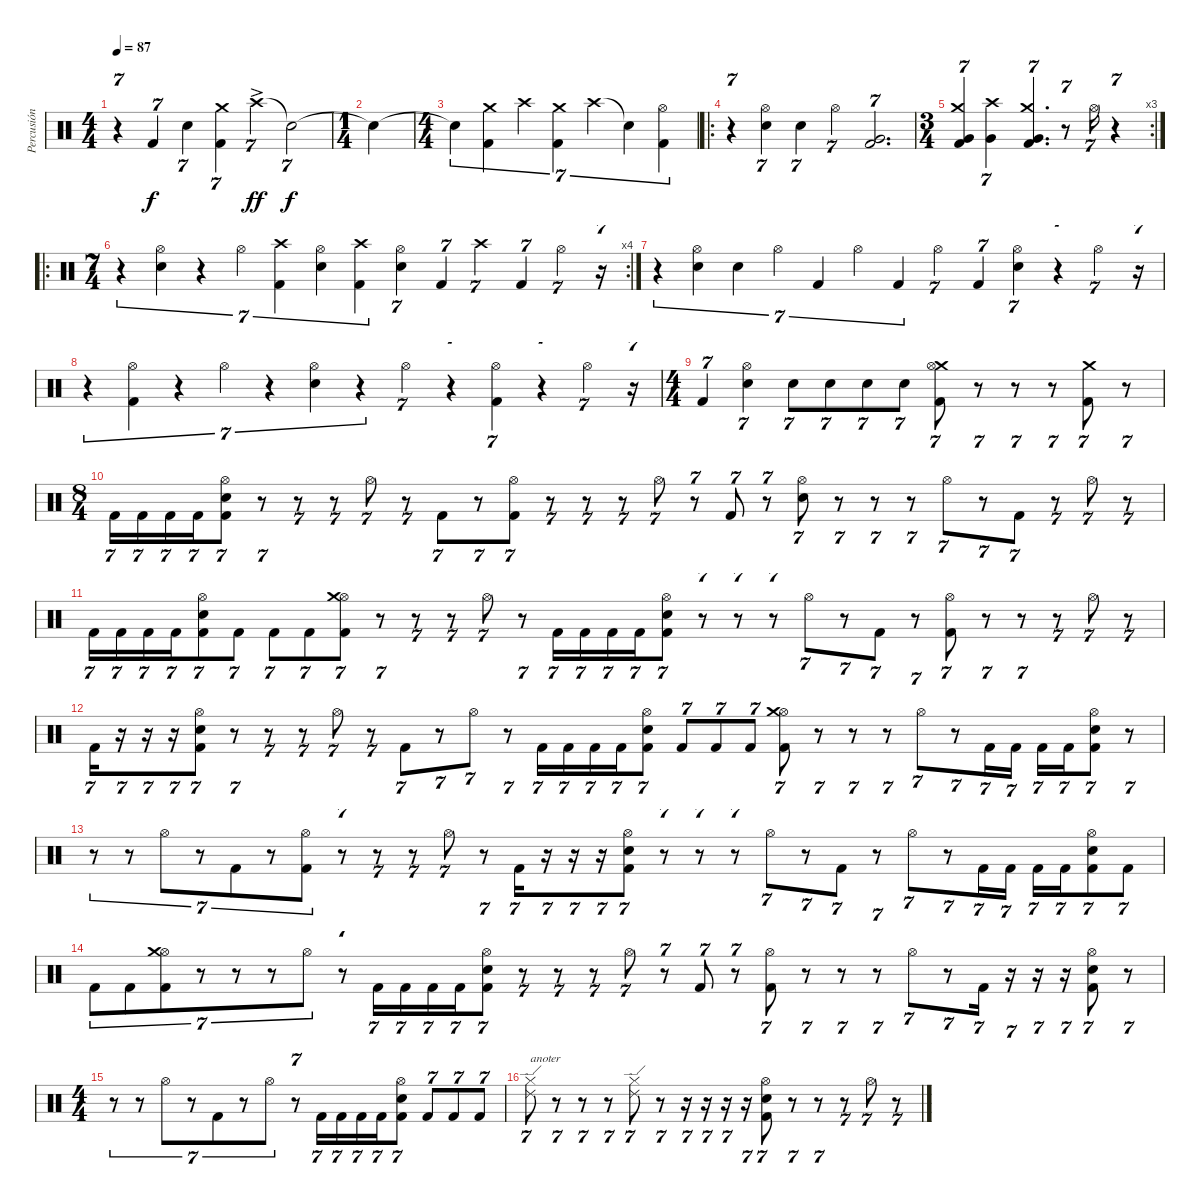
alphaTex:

\track ("Percusión" "Percusión") {instrument percussion}
\staff {score}
\articulation defaults
\ts (4 4)
\tempo 87
\clef neutral
\ks c
r.4{tu (7 4) dy fff} "Kick (hit) 2".4{tu (7 4) dy f} "Electric Snare (hit)".4{tu (7 4)} ("Crash medium (hit)" "Kick (hit) 2").4{tu (7 4)} "Crash high (hit)"{ac}.4{tu (7 4) dy ff} "Snare (hit)"{t}.2{tu (7 4) dy f} |
\ts (1 4)
"Snare (hit)"{t}.4 |
\ts (4 4)
"Snare (hit)"{t}.4{tu (7 4)} ("Crash medium (hit)" "Kick (hit) 2").4{tu (7 4)} "Crash high (hit)".4{tu (7 4)} ("Crash medium (hit)" "Kick (hit) 2").4{tu (7 4)} "Crash high (hit)".4{tu (7 4)} "Snare (hit)"{t}.4{tu (7 4)} ("Hi-Hat (open)" "Kick (hit) 2").4{tu (7 4)} |
\ro
r.4{tu (7 4)} ("Hi-Hat (open)" "Electric Snare (hit)").4{tu (7 4)} "Electric Snare (hit)".4{tu (7 4)} "Hi-Hat (open)".4{tu (7 4)} ("Very Low Tom (hit)" "Kick (hit) 2").2{d tu (7 4)} |
\rc 3
\ts (3 4)
("Crash medium (hit)" "Very Low Tom (hit)" "Kick (hit) 2").4{tu (7 4)} ("Crash high (hit)" "Very Low Tom (hit)").4{tu (7 4)} ("Crash medium (hit)" "Very Low Tom (hit)" "Kick (hit) 2").4{d tu (7 4)} r.8{tu (7 4)} "Hi-Hat (open)".16{tu (7 4)} r.4{tu (7 4)} |
\ro
\rc 4
\ts (7 4)
r.4{tu (7 4)} ("Hi-Hat (open)" "Electric Snare (hit)").4{tu (7 4)} r.4{tu (7 4)} "Hi-Hat (open)".4{tu (7 4)} ("Crash high (hit)" "Kick (hit) 2").4{tu (7 4)} ("Hi-Hat (open)" "Electric Snare (hit)").4{tu (7 4)} ("Crash high (hit)" "Kick (hit) 2").4{tu (7 4)} ("Hi-Hat (open)" "Electric Snare (hit)").4{tu (7 4)} "Kick (hit) 2".4{tu (7 4)} "Crash high (hit)".4{tu (7 4)} "Kick (hit) 2".4{tu (7 4)} "Hi-Hat (open)".4{tu (7 4)} r.16{tu (7 4)} |
r.4{tu (7 4)} ("Hi-Hat (open)" "Electric Snare (hit)").4{tu (7 4)} "Electric Snare (hit)".4{tu (7 4)} "Hi-Hat (open)".4{tu (7 4)} "Kick (hit) 2".4{tu (7 4)} "Hi-Hat (open)".4{tu (7 4)} "Kick (hit) 2".4{tu (7 4)} "Hi-Hat (open)".4{tu (7 4)} "Kick (hit) 2".4{tu (7 4)} ("Hi-Hat (open)" "Electric Snare (hit)").4{tu (7 4)} r.4{tu (7 4)} "Hi-Hat (open)".4{tu (7 4)} r.16{tu (7 4)} |
r.4{tu (7 4)} ("Hi-Hat (open)" "Kick (hit) 2").4{tu (7 4)} r.4{tu (7 4)} "Hi-Hat (open)".4{tu (7 4)} r.4{tu (7 4)} ("Hi-Hat (open)" "Electric Snare (hit)").4{tu (7 4)} r.4{tu (7 4)} "Hi-Hat (open)".4{tu (7 4)} r.4{tu (7 4)} ("Hi-Hat (open)" "Kick (hit) 2").4{tu (7 4)} r.4{tu (7 4)} "Hi-Hat (open)".4{tu (7 4)} r.16{tu (7 4)} |
\ts (4 4)
"Kick (hit) 2".4{tu (7 4)} ("Hi-Hat (open)" "Electric Snare (hit)").4{tu (7 4)} "Electric Snare (hit)".8{tu (7 4)} "Electric Snare (hit)".8{tu (7 4)} "Electric Snare (hit)".8{tu (7 4)} "Electric Snare (hit)".8{tu (7 4)} ("Crash medium (hit)" "Hi-Hat (open)" "Kick (hit) 2").8{tu (7 4)} r.8{tu (7 4)} r.8{tu (7 4)} r.8{tu (7 4)} ("Crash medium (hit)" "Kick (hit) 2").8{tu (7 4)} r.8{tu (7 4)} |
\ts (8 4)
"Kick (hit) 2".16{tu (7 4)} "Kick (hit) 2".16{tu (7 4)} "Kick (hit) 2".16{tu (7 4)} "Kick (hit) 2".16{tu (7 4)} ("Hi-Hat (open)" "Electric Snare (hit)" "Kick (hit) 2").8{tu (7 4)} r.8{tu (7 4)} r.8{tu (7 4)} r.8{tu (7 4)} "Hi-Hat (open)".8{tu (7 4)} r.8{tu (7 4)} "Kick (hit) 2".8{tu (7 4)} r.8{tu (7 4)} ("Hi-Hat (open)" "Kick (hit) 2").8{tu (7 4)} r.8{tu (7 4)} r.8{tu (7 4)} r.8{tu (7 4)} "Hi-Hat (open)".8{tu (7 4)} r.8{tu (7 4)} "Kick (hit) 2".8{tu (7 4)} r.8{tu (7 4)} ("Hi-Hat (open)" "Electric Snare (hit)").8{tu (7 4)} r.8{tu (7 4)} r.8{tu (7 4)} r.8{tu (7 4)} "Hi-Hat (open)".8{tu (7 4)} r.8{tu (7 4)} "Kick (hit) 2".8{tu (7 4)} r.8{tu (7 4)} "Hi-Hat (open)".8{tu (7 4)} r.8{tu (7 4)} |
"Kick (hit) 2".16{tu (7 4)} "Kick (hit) 2".16{tu (7 4)} "Kick (hit) 2".16{tu (7 4)} "Kick (hit) 2".16{tu (7 4)} ("Hi-Hat (open)" "Electric Snare (hit)" "Kick (hit) 2").8{tu (7 4)} "Kick (hit) 2".8{tu (7 4)} "Kick (hit) 2".8{tu (7 4)} "Kick (hit) 2".8{tu (7 4)} ("Hi-Hat (open)" "Crash medium (hit)" "Kick (hit) 2").8{tu (7 4)} r.8{tu (7 4)} r.8{tu (7 4)} r.8{tu (7 4)} "Hi-Hat (open)".8{tu (7 4)} r.8{tu (7 4)} "Kick (hit) 2".16{tu (7 4)} "Kick (hit) 2".16{tu (7 4)} "Kick (hit) 2".16{tu (7 4)} "Kick (hit) 2".16{tu (7 4)} ("Hi-Hat (open)" "Electric Snare (hit)" "Kick (hit) 2").8{tu (7 4)} r.8{tu (7 4)} r.8{tu (7 4)} r.8{tu (7 4)} "Hi-Hat (open)".8{tu (7 4)} r.8{tu (7 4)} "Kick (hit) 2".8{tu (7 4)} r.8{tu (7 4)} ("Hi-Hat (open)" "Kick (hit) 2").8{tu (7 4)} r.8{tu (7 4)} r.8{tu (7 4)} r.8{tu (7 4)} "Hi-Hat (open)".8{tu (7 4)} r.8{tu (7 4)} |
"Kick (hit) 2".16{tu (7 4)} r.16{tu (7 4)} r.16{tu (7 4)} r.16{tu (7 4)} ("Hi-Hat (open)" "Electric Snare (hit)" "Kick (hit) 2").8{tu (7 4)} r.8{tu (7 4)} r.8{tu (7 4)} r.8{tu (7 4)} "Hi-Hat (open)".8{tu (7 4)} r.8{tu (7 4)} "Kick (hit) 2".8{tu (7 4)} r.8{tu (7 4)} "Hi-Hat (open)".8{tu (7 4)} r.8{tu (7 4)} "Kick (hit) 2".16{tu (7 4)} "Kick (hit) 2".16{tu (7 4)} "Kick (hit) 2".16{tu (7 4)} "Kick (hit) 2".16{tu (7 4)} ("Hi-Hat (open)" "Electric Snare (hit)" "Kick (hit) 2").8{tu (7 4)} "Kick (hit) 2".8{tu (7 4)} "Kick (hit) 2".8{tu (7 4)} "Kick (hit) 2".8{tu (7 4)} ("Hi-Hat (open)" "Crash medium (hit)" "Kick (hit) 2").8{tu (7 4)} r.8{tu (7 4)} r.8{tu (7 4)} r.8{tu (7 4)} "Hi-Hat (open)".8{tu (7 4)} r.8{tu (7 4)} "Kick (hit) 2".16{tu (7 4)} "Kick (hit) 2".16{tu (7 4)} "Kick (hit) 2".16{tu (7 4)} "Kick (hit) 2".16{tu (7 4)} ("Hi-Hat (open)" "Electric Snare (hit)" "Kick (hit) 2").8{tu (7 4)} r.8{tu (7 4)} |
r.8{tu (7 4)} r.8{tu (7 4)} "Hi-Hat (open)".8{tu (7 4)} r.8{tu (7 4)} "Kick (hit) 2".8{tu (7 4)} r.8{tu (7 4)} ("Hi-Hat (open)" "Kick (hit) 2").8{tu (7 4)} r.8{tu (7 4)} r.8{tu (7 4)} r.8{tu (7 4)} "Hi-Hat (open)".8{tu (7 4)} r.8{tu (7 4)} "Kick (hit) 2".16{tu (7 4)} r.16{tu (7 4)} r.16{tu (7 4)} r.16{tu (7 4)} ("Hi-Hat (open)" "Electric Snare (hit)" "Kick (hit) 2").8{tu (7 4)} r.8{tu (7 4)} r.8{tu (7 4)} r.8{tu (7 4)} "Hi-Hat (open)".8{tu (7 4)} r.8{tu (7 4)} "Kick (hit) 2".8{tu (7 4)} r.8{tu (7 4)} "Hi-Hat (open)".8{tu (7 4)} r.8{tu (7 4)} "Kick (hit) 2".16{tu (7 4)} "Kick (hit) 2".16{tu (7 4)} "Kick (hit) 2".16{tu (7 4)} "Kick (hit) 2".16{tu (7 4)} ("Hi-Hat (open)" "Electric Snare (hit)" "Kick (hit) 2").8{tu (7 4)} "Kick (hit) 2".8{tu (7 4)} |
"Kick (hit) 2".8{tu (7 4)} "Kick (hit) 2".8{tu (7 4)} ("Hi-Hat (open)" "Crash medium (hit)" "Kick (hit) 2").8{tu (7 4)} r.8{tu (7 4)} r.8{tu (7 4)} r.8{tu (7 4)} "Hi-Hat (open)".8{tu (7 4)} r.8{tu (7 4)} "Kick (hit) 2".16{tu (7 4)} "Kick (hit) 2".16{tu (7 4)} "Kick (hit) 2".16{tu (7 4)} "Kick (hit) 2".16{tu (7 4)} ("Hi-Hat (open)" "Electric Snare (hit)" "Kick (hit) 2").8{tu (7 4)} r.8{tu (7 4)} r.8{tu (7 4)} r.8{tu (7 4)} "Hi-Hat (open)".8{tu (7 4)} r.8{tu (7 4)} "Kick (hit) 2".8{tu (7 4)} r.8{tu (7 4)} ("Hi-Hat (open)" "Kick (hit) 2").8{tu (7 4)} r.8{tu (7 4)} r.8{tu (7 4)} r.8{tu (7 4)} "Hi-Hat (open)".8{tu (7 4)} r.8{tu (7 4)} "Kick (hit) 2".16{tu (7 4)} r.16{tu (7 4)} r.16{tu (7 4)} r.16{tu (7 4)} ("Hi-Hat (open)" "Electric Snare (hit)" "Kick (hit) 2").8{tu (7 4)} r.8{tu (7 4)} |
\ts (4 4)
r.8{tu (7 4)} r.8{tu (7 4)} "Hi-Hat (open)".8{tu (7 4)} r.8{tu (7 4)} "Kick (hit) 2".8{tu (7 4)} r.8{tu (7 4)} "Hi-Hat (open)".8{tu (7 4)} r.8{tu (7 4)} "Kick (hit) 2".16{tu (7 4)} "Kick (hit) 2".16{tu (7 4)} "Kick (hit) 2".16{tu (7 4)} "Kick (hit) 2".16{tu (7 4)} ("Hi-Hat (open)" "Electric Snare (hit)" "Kick (hit) 2").8{tu (7 4)} "Kick (hit) 2".8{tu (7 4)} "Kick (hit) 2".8{tu (7 4)} "Kick (hit) 2".8{tu (7 4)} |
("Hi-Hat (closed)" "Ride (edge) 2").8{tu (7 4) txt "anoter"} r.8{tu (7 4)} r.8{tu (7 4)} r.8{tu (7 4)} ("Hi-Hat (closed)" "Ride (edge) 2").8{tu (7 4)} r.8{tu (7 4)} r.16{tu (7 4)} r.16{tu (7 4)} r.16{tu (7 4)} r.16{tu (7 4)} ("Hi-Hat (open)" "Electric Snare (hit)" "Kick (hit) 2").8{tu (7 4)} r.8{tu (7 4)} r.8{tu (7 4)} r.8{tu (7 4)} "Hi-Hat (open)".8{tu (7 4)} r.8{tu (7 4)}
